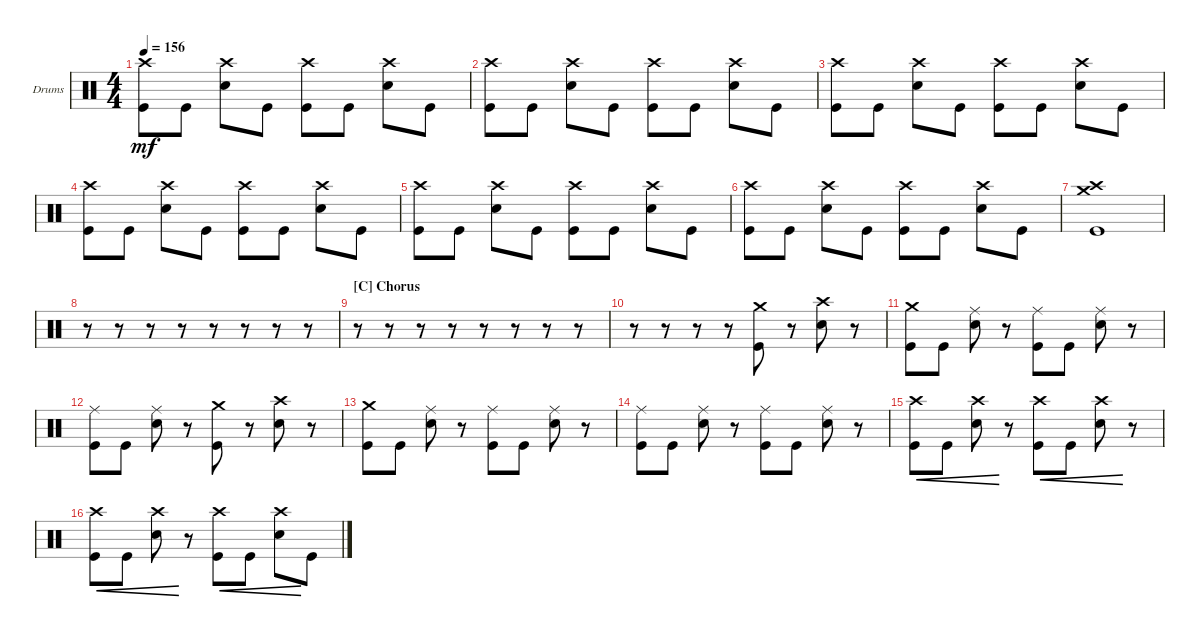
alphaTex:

\defaultSystemsLayout 4
\bracketExtendMode groupsimilarinstruments
\firstSystemTrackNameOrientation horizontal
\otherSystemsTrackNameOrientation horizontal
\track ("Drumkit" "Drums") {instrument percussion}
\staff {score}
\articulation defaults
\ts (4 4)
\tempo 156
\clef neutral
\ks c
("Crash high (hit)" "Kick (hit)").8{dy mf} "Kick (hit)".8 ("Snare (hit) 2" "Crash high (hit)").8 "Kick (hit)".8 ("Kick (hit)" "Crash high (hit)").8 "Kick (hit)".8 ("Snare (hit) 2" "Crash high (hit)").8 "Kick (hit)".8 |
("Crash high (hit)" "Kick (hit)").8 "Kick (hit)".8 ("Snare (hit) 2" "Crash high (hit)").8 "Kick (hit)".8 ("Kick (hit)" "Crash high (hit)").8 "Kick (hit)".8 ("Snare (hit) 2" "Crash high (hit)").8 "Kick (hit)".8 |
("Crash high (hit)" "Kick (hit)").8 "Kick (hit)".8 ("Snare (hit) 2" "Crash high (hit)").8 "Kick (hit)".8 ("Kick (hit)" "Crash high (hit)").8 "Kick (hit)".8 ("Snare (hit) 2" "Crash high (hit)").8 "Kick (hit)".8 |
("Crash high (hit)" "Kick (hit)").8 "Kick (hit)".8 ("Snare (hit) 2" "Crash high (hit)").8 "Kick (hit)".8 ("Kick (hit)" "Crash high (hit)").8 "Kick (hit)".8 ("Snare (hit) 2" "Crash high (hit)").8 "Kick (hit)".8 |
("Crash high (hit)" "Kick (hit)").8 "Kick (hit)".8 ("Snare (hit) 2" "Crash high (hit)").8 "Kick (hit)".8 ("Kick (hit)" "Crash high (hit)").8 "Kick (hit)".8 ("Snare (hit) 2" "Crash high (hit)").8 "Kick (hit)".8 |
("Crash high (hit)" "Kick (hit)").8 "Kick (hit)".8 ("Snare (hit) 2" "Crash high (hit)").8 "Kick (hit)".8 ("Kick (hit)" "Crash high (hit)").8 "Kick (hit)".8 ("Snare (hit) 2" "Crash high (hit)").8 "Kick (hit)".8 |
("Kick (hit)" "Crash high (hit)" "Crash medium (hit)").1 |
r.8 r.8 r.8 r.8 r.8 r.8 r.8 r.8 |
\section ("C" "Chorus")
r.8 r.8 r.8 r.8 r.8 r.8 r.8 r.8 |
r.8 r.8 r.8 r.8 ("Kick (hit)" "Crash medium (hit)").8 r.8 ("Snare (hit) 2" "Crash high (hit)").8 r.8 |
("Kick (hit)" "Crash medium (hit)").8 "Kick (hit)".8 ("Snare (hit) 2" "Ride (middle)").8 r.8 ("Kick (hit)" "Ride (middle)").8 "Kick (hit)".8 ("Snare (hit) 2" "Ride (middle)").8 r.8 |
("Kick (hit)" "Ride (middle)").8 "Kick (hit)".8 ("Snare (hit) 2" "Ride (middle)").8 r.8 ("Kick (hit)" "Crash medium (hit)").8 r.8 ("Snare (hit) 2" "Crash high (hit)").8 r.8 |
("Kick (hit)" "Crash medium (hit)").8 "Kick (hit)".8 ("Snare (hit) 2" "Ride (middle)").8 r.8 ("Kick (hit)" "Ride (middle)").8 "Kick (hit)".8 ("Snare (hit) 2" "Ride (middle)").8 r.8 |
("Kick (hit)" "Ride (middle)").8 "Kick (hit)".8 ("Snare (hit) 2" "Ride (middle)").8 r.8 ("Kick (hit)" "Ride (middle)").8 "Kick (hit)".8 ("Snare (hit) 2" "Ride (middle)").8 r.8 |
("Kick (hit)" "Crash high (hit)").8{cre} "Kick (hit)".8{cre} ("Snare (hit) 2" "Crash high (hit)").8{cre} r.8 ("Kick (hit)" "Crash high (hit)").8{cre} "Kick (hit)".8{cre} ("Snare (hit) 2" "Crash high (hit)").8{cre} r.8 |
("Kick (hit)" "Crash high (hit)").8{cre} "Kick (hit)".8{cre} ("Snare (hit) 2" "Crash high (hit)").8{cre} r.8 ("Kick (hit)" "Crash high (hit)").8{cre} "Kick (hit)".8{cre} ("Snare (hit) 2" "Crash high (hit)").8{cre} "Kick (hit)".8
